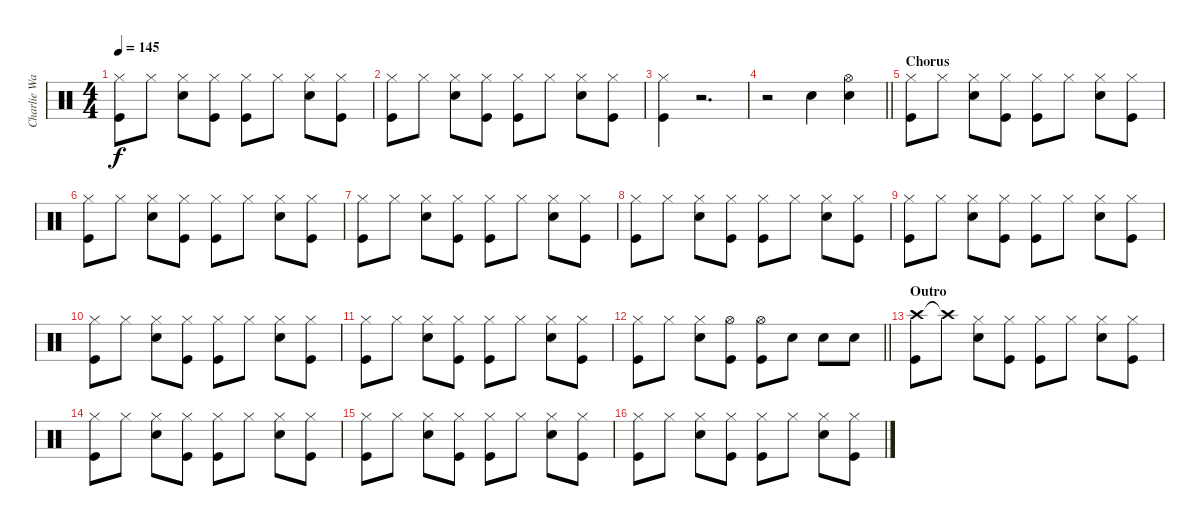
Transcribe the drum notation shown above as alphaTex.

\track ("Charlie Watts" "Charlie Wa") {instrument percussion}
\staff {score}
\articulation defaults
\ts (4 4)
\tempo 145
\clef neutral
\ks c
("Hi-Hat (closed)" "Kick (hit)").8{dy f} "Hi-Hat (closed)".8 ("Hi-Hat (closed)" "Snare (hit) 2").8 ("Hi-Hat (closed)" "Kick (hit)").8 ("Hi-Hat (closed)" "Kick (hit)").8 "Hi-Hat (closed)".8 ("Hi-Hat (closed)" "Snare (hit) 2").8 ("Hi-Hat (closed)" "Kick (hit)").8 |
("Hi-Hat (closed)" "Kick (hit)").8 "Hi-Hat (closed)".8 ("Hi-Hat (closed)" "Snare (hit) 2").8 ("Hi-Hat (closed)" "Kick (hit)").8 ("Hi-Hat (closed)" "Kick (hit)").8 "Hi-Hat (closed)".8 ("Hi-Hat (closed)" "Snare (hit) 2").8 ("Hi-Hat (closed)" "Kick (hit)").8 |
("Hi-Hat (closed)" "Kick (hit)").4 r.2{d} |
\barLineRight lightlight
r.2 "Snare (hit) 2".4 ("Hi-Hat (open)" "Snare (hit) 2").4 |
\section ("" "Chorus")
("Hi-Hat (closed)" "Kick (hit)").8 "Hi-Hat (closed)".8 ("Hi-Hat (closed)" "Snare (hit) 2").8 ("Hi-Hat (closed)" "Kick (hit)").8 ("Hi-Hat (closed)" "Kick (hit)").8 "Hi-Hat (closed)".8 ("Hi-Hat (closed)" "Snare (hit) 2").8 ("Hi-Hat (closed)" "Kick (hit)").8 |
("Hi-Hat (closed)" "Kick (hit)").8 "Hi-Hat (closed)".8 ("Hi-Hat (closed)" "Snare (hit) 2").8 ("Hi-Hat (closed)" "Kick (hit)").8 ("Hi-Hat (closed)" "Kick (hit)").8 "Hi-Hat (closed)".8 ("Hi-Hat (closed)" "Snare (hit) 2").8 ("Hi-Hat (closed)" "Kick (hit)").8 |
("Hi-Hat (closed)" "Kick (hit)").8 "Hi-Hat (closed)".8 ("Hi-Hat (closed)" "Snare (hit) 2").8 ("Hi-Hat (closed)" "Kick (hit)").8 ("Hi-Hat (closed)" "Kick (hit)").8 "Hi-Hat (closed)".8 ("Hi-Hat (closed)" "Snare (hit) 2").8 ("Hi-Hat (closed)" "Kick (hit)").8 |
("Hi-Hat (closed)" "Kick (hit)").8 "Hi-Hat (closed)".8 ("Hi-Hat (closed)" "Snare (hit) 2").8 ("Hi-Hat (closed)" "Kick (hit)").8 ("Hi-Hat (closed)" "Kick (hit)").8 "Hi-Hat (closed)".8 ("Hi-Hat (closed)" "Snare (hit) 2").8 ("Hi-Hat (closed)" "Kick (hit)").8 |
("Hi-Hat (closed)" "Kick (hit)").8 "Hi-Hat (closed)".8 ("Hi-Hat (closed)" "Snare (hit) 2").8 ("Hi-Hat (closed)" "Kick (hit)").8 ("Hi-Hat (closed)" "Kick (hit)").8 "Hi-Hat (closed)".8 ("Hi-Hat (closed)" "Snare (hit) 2").8 ("Hi-Hat (closed)" "Kick (hit)").8 |
("Hi-Hat (closed)" "Kick (hit)").8 "Hi-Hat (closed)".8 ("Hi-Hat (closed)" "Snare (hit) 2").8 ("Hi-Hat (closed)" "Kick (hit)").8 ("Hi-Hat (closed)" "Kick (hit)").8 "Hi-Hat (closed)".8 ("Hi-Hat (closed)" "Snare (hit) 2").8 ("Hi-Hat (closed)" "Kick (hit)").8 |
("Hi-Hat (closed)" "Kick (hit)").8 "Hi-Hat (closed)".8 ("Hi-Hat (closed)" "Snare (hit) 2").8 ("Hi-Hat (closed)" "Kick (hit)").8 ("Hi-Hat (closed)" "Kick (hit)").8 "Hi-Hat (closed)".8 ("Hi-Hat (closed)" "Snare (hit) 2").8 ("Hi-Hat (closed)" "Kick (hit)").8 |
\barLineRight lightlight
("Hi-Hat (closed)" "Kick (hit)").8 "Hi-Hat (closed)".8 ("Hi-Hat (closed)" "Snare (hit) 2").8 ("Hi-Hat (open)" "Kick (hit)").8 ("Hi-Hat (open)" "Kick (hit)").8 "Snare (hit) 2".8 "Snare (hit) 2".8 "Snare (hit) 2".8 |
\section ("" "Outro")
("Crash high (hit)" "Kick (hit)").8 "Crash high (hit)"{t}.8 ("Hi-Hat (closed)" "Snare (hit) 2").8 ("Hi-Hat (closed)" "Kick (hit)").8 ("Hi-Hat (closed)" "Kick (hit)").8 "Hi-Hat (closed)".8 ("Hi-Hat (closed)" "Snare (hit) 2").8 ("Hi-Hat (closed)" "Kick (hit)").8 |
("Hi-Hat (closed)" "Kick (hit)").8 "Hi-Hat (closed)".8 ("Hi-Hat (closed)" "Snare (hit) 2").8 ("Hi-Hat (closed)" "Kick (hit)").8 ("Hi-Hat (closed)" "Kick (hit)").8 "Hi-Hat (closed)".8 ("Hi-Hat (closed)" "Snare (hit) 2").8 ("Hi-Hat (closed)" "Kick (hit)").8 |
("Hi-Hat (closed)" "Kick (hit)").8 "Hi-Hat (closed)".8 ("Hi-Hat (closed)" "Snare (hit) 2").8 ("Hi-Hat (closed)" "Kick (hit)").8 ("Hi-Hat (closed)" "Kick (hit)").8 "Hi-Hat (closed)".8 ("Hi-Hat (closed)" "Snare (hit) 2").8 ("Hi-Hat (closed)" "Kick (hit)").8 |
("Hi-Hat (closed)" "Kick (hit)").8 "Hi-Hat (closed)".8 ("Hi-Hat (closed)" "Snare (hit) 2").8 ("Hi-Hat (closed)" "Kick (hit)").8 ("Hi-Hat (closed)" "Kick (hit)").8 "Hi-Hat (closed)".8 ("Hi-Hat (closed)" "Snare (hit) 2").8 ("Hi-Hat (closed)" "Kick (hit)").8
